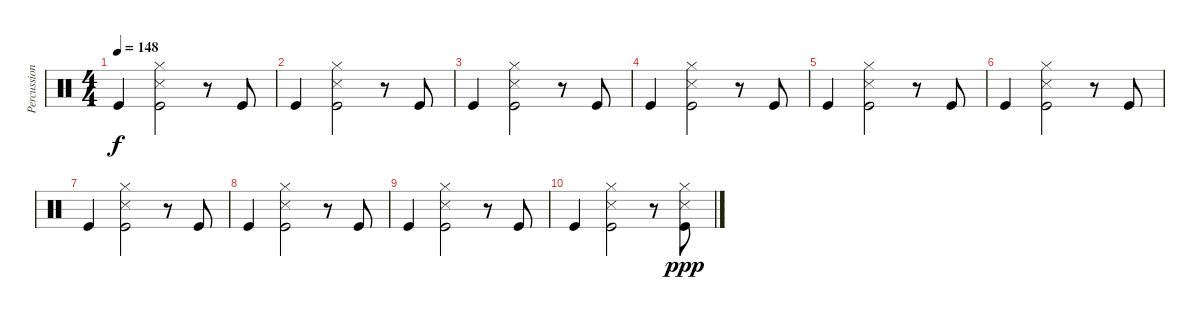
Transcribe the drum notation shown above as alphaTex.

\track ("Percussion" "Percussion") {instrument percussion}
\staff {score}
\articulation defaults
\ts (4 4)
\tempo 148
\clef neutral
\ks c "Kick (hit)".4{dy f}
("Snare (side stick) 3" "Hi-Hat (closed)" "Kick (hit)").2 r.8 "Kick (hit)".8 |
"Kick (hit)".4 ("Snare (side stick) 3" "Hi-Hat (closed)" "Kick (hit)").2 r.8 "Kick (hit)".8 |
"Kick (hit)".4 ("Snare (side stick) 3" "Hi-Hat (closed)" "Kick (hit)").2 r.8 "Kick (hit)".8 |
"Kick (hit)".4 ("Snare (side stick) 3" "Hi-Hat (closed)" "Kick (hit)").2 r.8 "Kick (hit)".8 |
"Kick (hit)".4 ("Snare (side stick) 3" "Hi-Hat (closed)" "Kick (hit)").2 r.8 "Kick (hit)".8 |
"Kick (hit)".4 ("Snare (side stick) 3" "Hi-Hat (closed)" "Kick (hit)").2 r.8 "Kick (hit)".8 |
"Kick (hit)".4 ("Snare (side stick) 3" "Hi-Hat (closed)" "Kick (hit)").2 r.8 "Kick (hit)".8 |
"Kick (hit)".4 ("Snare (side stick) 3" "Hi-Hat (closed)" "Kick (hit)").2 r.8 "Kick (hit)".8 |
"Kick (hit)".4 ("Snare (side stick) 3" "Hi-Hat (closed)" "Kick (hit)").2 r.8 "Kick (hit)".8 |
"Kick (hit)".4 ("Snare (side stick) 3" "Hi-Hat (closed)" "Kick (hit)").2 r.8 ("Snare (side stick) 3" "Kick (hit)" "Hi-Hat (closed)").8{dy ppp}
